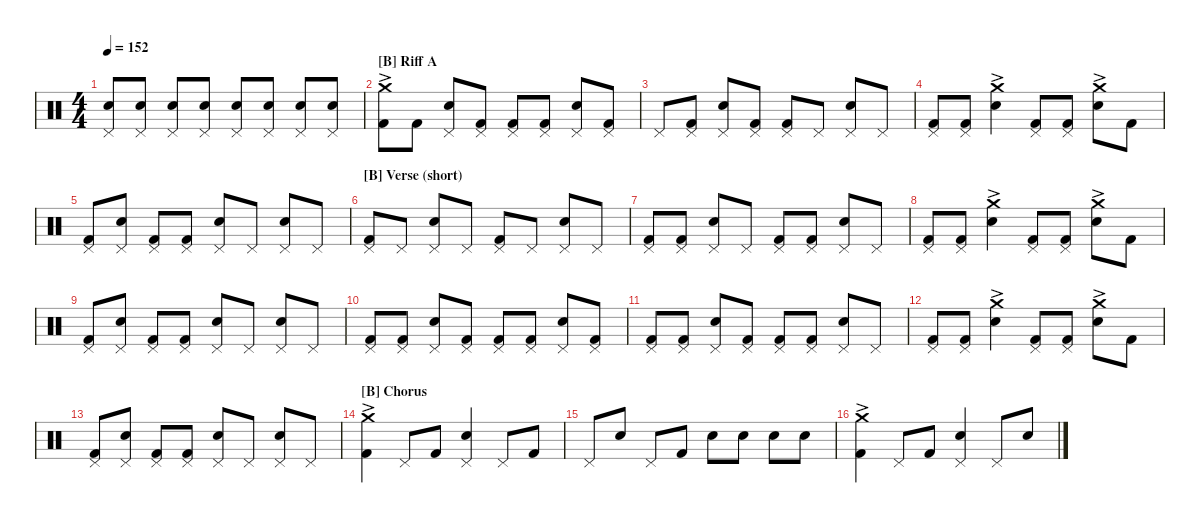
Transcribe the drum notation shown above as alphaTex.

\hideDynamics
\bracketExtendMode nobrackets
\singleTrackTrackNamePolicy hidden
\multiTrackTrackNamePolicy hidden
\firstSystemTrackNameMode fullname
\firstSystemTrackNameOrientation horizontal
\otherSystemsTrackNameOrientation horizontal
\track ("Drumkit" "Drums") {instrument percussion}
\staff {score}
\articulation defaults
\ts (4 4)
\tempo 152
\clef neutral
\ks c
("Pedal Hi-Hat (hit)" "Snare (hit) 2").8{dy mp beam Up} ("Pedal Hi-Hat (hit)" "Snare (hit) 2").8{beam Up} ("Pedal Hi-Hat (hit)" "Snare (hit) 2").8{beam Up} ("Pedal Hi-Hat (hit)" "Snare (hit) 2").8{dy mf beam Up} ("Pedal Hi-Hat (hit)" "Snare (hit) 2").8{beam Up} ("Pedal Hi-Hat (hit)" "Snare (hit) 2").8{beam Up} ("Pedal Hi-Hat (hit)" "Snare (hit) 2").8{beam Up} ("Pedal Hi-Hat (hit)" "Snare (hit) 2").8{dy f beam Up} |
\section ("B" "Riff A")
("Crash medium (hit)"{ac} "Kick (hit) 2").8{beam Down} "Kick (hit) 2".8{beam Down} ("Pedal Hi-Hat (hit)" "Snare (hit) 2").8{beam Up} ("Pedal Hi-Hat (hit)" "Kick (hit) 2").8{beam Up} ("Pedal Hi-Hat (hit)" "Kick (hit) 2").8{beam Up} ("Pedal Hi-Hat (hit)" "Kick (hit) 2").8{beam Up} ("Pedal Hi-Hat (hit)" "Snare (hit) 2").8{beam Up} ("Pedal Hi-Hat (hit)" "Kick (hit) 2").8{beam Up} |
"Pedal Hi-Hat (hit)".8{beam Up} ("Pedal Hi-Hat (hit)" "Kick (hit) 2").8{beam Up} ("Pedal Hi-Hat (hit)" "Snare (hit) 2").8{beam Up} ("Pedal Hi-Hat (hit)" "Kick (hit) 2").8{beam Up} ("Pedal Hi-Hat (hit)" "Kick (hit) 2").8{beam Up} "Pedal Hi-Hat (hit)".8{beam Up} ("Pedal Hi-Hat (hit)" "Snare (hit) 2").8{beam Up} "Pedal Hi-Hat (hit)".8{beam Up} |
("Pedal Hi-Hat (hit)" "Kick (hit) 2").8{beam Up} ("Pedal Hi-Hat (hit)" "Kick (hit) 2").8{beam Up} ("Crash medium (hit)"{ac} "Snare (hit) 2").4{beam Down} ("Pedal Hi-Hat (hit)" "Kick (hit) 2").8{beam Up} ("Pedal Hi-Hat (hit)" "Kick (hit) 2").8{beam Up} ("Crash medium (hit)"{ac} "Snare (hit) 2").8{beam Down} "Kick (hit) 2".8{beam Down} |
("Pedal Hi-Hat (hit)" "Kick (hit) 2").8{beam Up} ("Pedal Hi-Hat (hit)" "Snare (hit) 2").8{beam Up} ("Pedal Hi-Hat (hit)" "Kick (hit) 2").8{beam Up} ("Pedal Hi-Hat (hit)" "Kick (hit) 2").8{beam Up} ("Pedal Hi-Hat (hit)" "Snare (hit) 2").8{beam Up} "Pedal Hi-Hat (hit)".8{beam Up} ("Pedal Hi-Hat (hit)" "Snare (hit) 2").8{beam Up} "Pedal Hi-Hat (hit)".8{beam Up} |
\section ("B" "Verse (short)")
("Pedal Hi-Hat (hit)" "Kick (hit) 2").8{beam Up} "Pedal Hi-Hat (hit)".8{beam Up} ("Pedal Hi-Hat (hit)" "Snare (hit) 2").8{beam Up} "Pedal Hi-Hat (hit)".8{beam Up} ("Pedal Hi-Hat (hit)" "Kick (hit) 2").8{beam Up} "Pedal Hi-Hat (hit)".8{beam Up} ("Pedal Hi-Hat (hit)" "Snare (hit) 2").8{beam Up} "Pedal Hi-Hat (hit)".8{beam Up} |
("Pedal Hi-Hat (hit)" "Kick (hit) 2").8{beam Up} ("Pedal Hi-Hat (hit)" "Kick (hit) 2").8{beam Up} ("Pedal Hi-Hat (hit)" "Snare (hit) 2").8{beam Up} "Pedal Hi-Hat (hit)".8{beam Up} ("Pedal Hi-Hat (hit)" "Kick (hit) 2").8{beam Up} ("Pedal Hi-Hat (hit)" "Kick (hit) 2").8{beam Up} ("Pedal Hi-Hat (hit)" "Snare (hit) 2").8{beam Up} "Pedal Hi-Hat (hit)".8{beam Up} |
("Pedal Hi-Hat (hit)" "Kick (hit) 2").8{beam Up} ("Pedal Hi-Hat (hit)" "Kick (hit) 2").8{beam Up} ("Crash medium (hit)"{ac} "Snare (hit) 2").4{beam Down} ("Pedal Hi-Hat (hit)" "Kick (hit) 2").8{beam Up} ("Pedal Hi-Hat (hit)" "Kick (hit) 2").8{beam Up} ("Crash medium (hit)"{ac} "Snare (hit) 2").8{beam Down} "Kick (hit) 2".8{beam Down} |
("Pedal Hi-Hat (hit)" "Kick (hit) 2").8{beam Up} ("Pedal Hi-Hat (hit)" "Snare (hit) 2").8{beam Up} ("Pedal Hi-Hat (hit)" "Kick (hit) 2").8{beam Up} ("Pedal Hi-Hat (hit)" "Kick (hit) 2").8{beam Up} ("Pedal Hi-Hat (hit)" "Snare (hit) 2").8{beam Up} "Pedal Hi-Hat (hit)".8{beam Up} ("Pedal Hi-Hat (hit)" "Snare (hit) 2").8{beam Up} "Pedal Hi-Hat (hit)".8{beam Up} |
("Pedal Hi-Hat (hit)" "Kick (hit) 2").8{beam Up} ("Pedal Hi-Hat (hit)" "Kick (hit) 2").8{beam Up} ("Pedal Hi-Hat (hit)" "Snare (hit) 2").8{beam Up} ("Pedal Hi-Hat (hit)" "Kick (hit) 2").8{beam Up} ("Pedal Hi-Hat (hit)" "Kick (hit) 2").8{beam Up} ("Pedal Hi-Hat (hit)" "Kick (hit) 2").8{beam Up} ("Pedal Hi-Hat (hit)" "Snare (hit) 2").8{beam Up} ("Pedal Hi-Hat (hit)" "Kick (hit) 2").8{beam Up} |
("Pedal Hi-Hat (hit)" "Kick (hit) 2").8{beam Up} ("Pedal Hi-Hat (hit)" "Kick (hit) 2").8{beam Up} ("Pedal Hi-Hat (hit)" "Snare (hit) 2").8{beam Up} ("Pedal Hi-Hat (hit)" "Kick (hit) 2").8{beam Up} ("Pedal Hi-Hat (hit)" "Kick (hit) 2").8{beam Up} ("Pedal Hi-Hat (hit)" "Kick (hit) 2").8{beam Up} ("Pedal Hi-Hat (hit)" "Snare (hit) 2").8{beam Up} "Pedal Hi-Hat (hit)".8{beam Up} |
("Pedal Hi-Hat (hit)" "Kick (hit) 2").8{beam Up} ("Pedal Hi-Hat (hit)" "Kick (hit) 2").8{beam Up} ("Crash medium (hit)"{ac} "Snare (hit) 2").4{beam Down} ("Pedal Hi-Hat (hit)" "Kick (hit) 2").8{beam Up} ("Pedal Hi-Hat (hit)" "Kick (hit) 2").8{beam Up} ("Crash medium (hit)"{ac} "Snare (hit) 2").8{beam Down} "Kick (hit) 2".8{beam Down} |
("Pedal Hi-Hat (hit)" "Kick (hit) 2").8{beam Up} ("Pedal Hi-Hat (hit)" "Snare (hit) 2").8{beam Up} ("Pedal Hi-Hat (hit)" "Kick (hit) 2").8{beam Up} ("Pedal Hi-Hat (hit)" "Kick (hit) 2").8{beam Up} ("Pedal Hi-Hat (hit)" "Snare (hit) 2").8{beam Up} "Pedal Hi-Hat (hit)".8{beam Up} ("Pedal Hi-Hat (hit)" "Snare (hit) 2").8{beam Up} "Pedal Hi-Hat (hit)".8{beam Up} |
\section ("B" "Chorus")
("Crash medium (hit)"{ac} "Kick (hit) 2").4{beam Down} "Pedal Hi-Hat (hit)".8{beam Up} "Kick (hit) 2".8{beam Up} ("Pedal Hi-Hat (hit)" "Snare (hit) 2").4{beam Up} "Pedal Hi-Hat (hit)".8{beam Up} "Kick (hit) 2".8{beam Up} |
"Pedal Hi-Hat (hit)".8{beam Up} "Snare (hit) 2".8{beam Up} "Pedal Hi-Hat (hit)".8{beam Up} "Kick (hit) 2".8{beam Up} "Snare (hit) 2".8{beam Down} "Snare (hit) 2".8{beam Down} "Snare (hit) 2".8{beam Down} "Snare (hit) 2".8{beam Down} |
("Crash medium (hit)"{ac} "Kick (hit) 2").4{beam Down} "Pedal Hi-Hat (hit)".8{beam Up} "Kick (hit) 2".8{beam Up} ("Pedal Hi-Hat (hit)" "Snare (hit) 2").4{beam Up} "Pedal Hi-Hat (hit)".8{beam Up} "Snare (hit) 2".8{beam Up}
